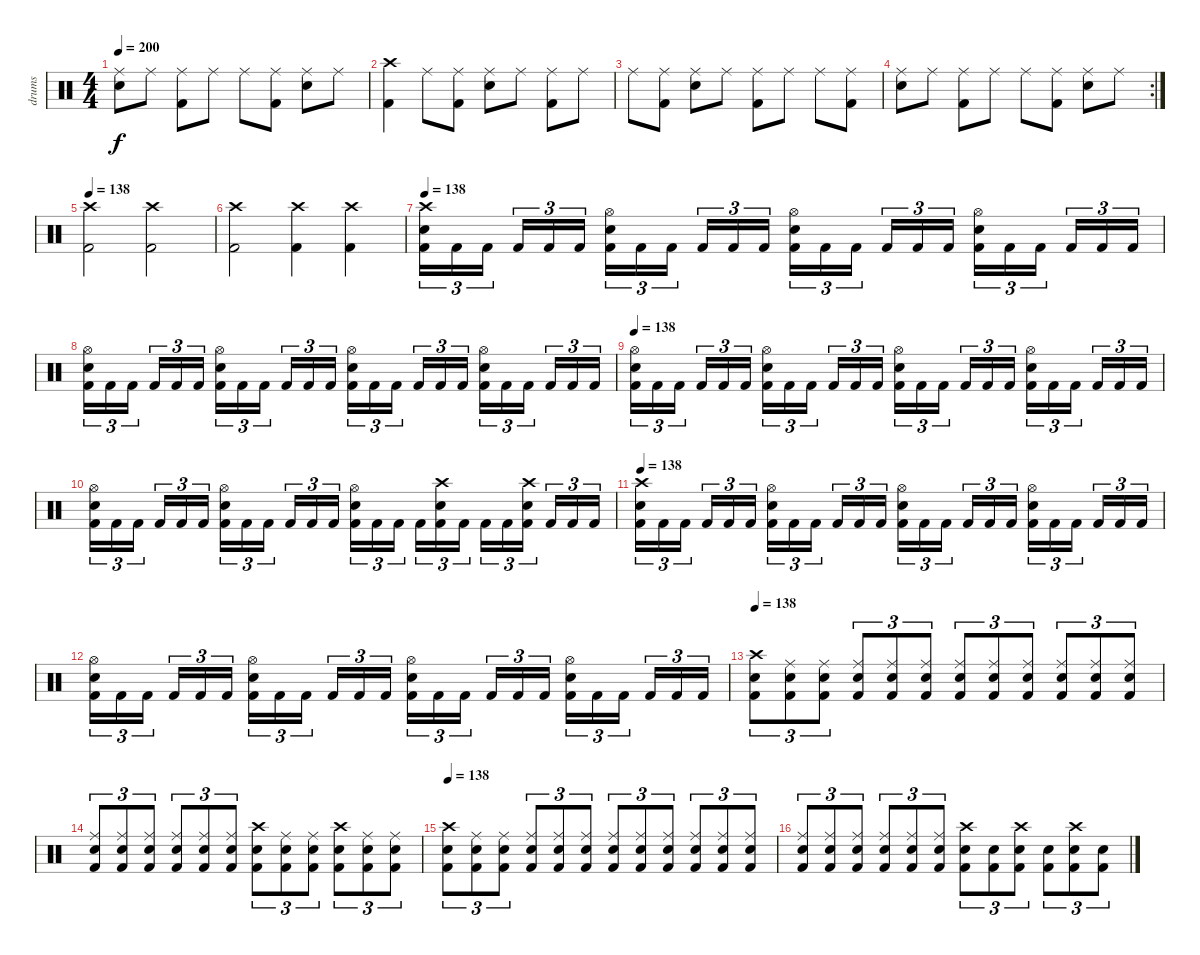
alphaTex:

\track ("drums" "drums") {instrument percussion}
\staff {score}
\articulation defaults
\ts (4 4)
\tempo 200
\clef neutral
\ks c
("Snare (hit) 2" "Ride (middle)").8{dy f} "Ride (middle)".8 ("Kick (hit) 2" "Ride (middle)").8 "Ride (middle)".8 "Ride (middle)".8 ("Kick (hit) 2" "Ride (middle)").8 ("Snare (hit) 2" "Ride (middle)").8 "Ride (middle)".8 |
("Kick (hit) 2" "Crash high (hit)").4 "Ride (middle)".8 ("Kick (hit) 2" "Ride (middle)").8 ("Snare (hit) 2" "Ride (middle)").8 "Ride (middle)".8 ("Kick (hit) 2" "Ride (middle)").8 "Ride (middle)".8 |
"Ride (middle)".8 ("Kick (hit) 2" "Ride (middle)").8 ("Snare (hit) 2" "Ride (middle)").8 "Ride (middle)".8 ("Kick (hit) 2" "Ride (middle)").8 "Ride (middle)".8 "Ride (middle)".8 ("Kick (hit) 2" "Ride (middle)").8 |
\rc 2
("Snare (hit) 2" "Ride (middle)").8 "Ride (middle)".8 ("Kick (hit) 2" "Ride (middle)").8 "Ride (middle)".8 "Ride (middle)".8 ("Kick (hit) 2" "Ride (middle)").8 ("Snare (hit) 2" "Ride (middle)").8 "Ride (middle)".8 |
\tempo 138
("Kick (hit) 2" "Crash high (hit)").2 ("Kick (hit) 2" "Crash high (hit)").2 |
("Kick (hit) 2" "Crash high (hit)").2 ("Kick (hit) 2" "Crash high (hit)").4 ("Kick (hit) 2" "Crash high (hit)").4 |
\tempo 138
("Kick (hit) 2" "Snare (hit) 2" "Crash high (hit)").16{tu (3 2)} "Kick (hit) 2".16{tu (3 2)} "Kick (hit) 2".16{tu (3 2)} "Kick (hit) 2".16{tu (3 2)} "Kick (hit) 2".16{tu (3 2)} "Kick (hit) 2".16{tu (3 2)} ("Kick (hit) 2" "Snare (hit) 2" "Hi-Hat (open)").16{tu (3 2)} "Kick (hit) 2".16{tu (3 2)} "Kick (hit) 2".16{tu (3 2)} "Kick (hit) 2".16{tu (3 2)} "Kick (hit) 2".16{tu (3 2)} "Kick (hit) 2".16{tu (3 2)} ("Kick (hit) 2" "Snare (hit) 2" "Hi-Hat (open)").16{tu (3 2)} "Kick (hit) 2".16{tu (3 2)} "Kick (hit) 2".16{tu (3 2)} "Kick (hit) 2".16{tu (3 2)} "Kick (hit) 2".16{tu (3 2)} "Kick (hit) 2".16{tu (3 2)} ("Kick (hit) 2" "Snare (hit) 2" "Hi-Hat (open)").16{tu (3 2)} "Kick (hit) 2".16{tu (3 2)} "Kick (hit) 2".16{tu (3 2)} "Kick (hit) 2".16{tu (3 2)} "Kick (hit) 2".16{tu (3 2)} "Kick (hit) 2".16{tu (3 2)} |
("Kick (hit) 2" "Snare (hit) 2" "Hi-Hat (open)").16{tu (3 2)} "Kick (hit) 2".16{tu (3 2)} "Kick (hit) 2".16{tu (3 2)} "Kick (hit) 2".16{tu (3 2)} "Kick (hit) 2".16{tu (3 2)} "Kick (hit) 2".16{tu (3 2)} ("Kick (hit) 2" "Snare (hit) 2" "Hi-Hat (open)").16{tu (3 2)} "Kick (hit) 2".16{tu (3 2)} "Kick (hit) 2".16{tu (3 2)} "Kick (hit) 2".16{tu (3 2)} "Kick (hit) 2".16{tu (3 2)} "Kick (hit) 2".16{tu (3 2)} ("Kick (hit) 2" "Snare (hit) 2" "Hi-Hat (open)").16{tu (3 2)} "Kick (hit) 2".16{tu (3 2)} "Kick (hit) 2".16{tu (3 2)} "Kick (hit) 2".16{tu (3 2)} "Kick (hit) 2".16{tu (3 2)} "Kick (hit) 2".16{tu (3 2)} ("Kick (hit) 2" "Snare (hit) 2" "Hi-Hat (open)").16{tu (3 2)} "Kick (hit) 2".16{tu (3 2)} "Kick (hit) 2".16{tu (3 2)} "Kick (hit) 2".16{tu (3 2)} "Kick (hit) 2".16{tu (3 2)} "Kick (hit) 2".16{tu (3 2)} |
\tempo 138
("Kick (hit) 2" "Snare (hit) 2" "Hi-Hat (open)").16{tu (3 2)} "Kick (hit) 2".16{tu (3 2)} "Kick (hit) 2".16{tu (3 2)} "Kick (hit) 2".16{tu (3 2)} "Kick (hit) 2".16{tu (3 2)} "Kick (hit) 2".16{tu (3 2)} ("Kick (hit) 2" "Snare (hit) 2" "Hi-Hat (open)").16{tu (3 2)} "Kick (hit) 2".16{tu (3 2)} "Kick (hit) 2".16{tu (3 2)} "Kick (hit) 2".16{tu (3 2)} "Kick (hit) 2".16{tu (3 2)} "Kick (hit) 2".16{tu (3 2)} ("Kick (hit) 2" "Snare (hit) 2" "Hi-Hat (open)").16{tu (3 2)} "Kick (hit) 2".16{tu (3 2)} "Kick (hit) 2".16{tu (3 2)} "Kick (hit) 2".16{tu (3 2)} "Kick (hit) 2".16{tu (3 2)} "Kick (hit) 2".16{tu (3 2)} ("Kick (hit) 2" "Snare (hit) 2" "Hi-Hat (open)").16{tu (3 2)} "Kick (hit) 2".16{tu (3 2)} "Kick (hit) 2".16{tu (3 2)} "Kick (hit) 2".16{tu (3 2)} "Kick (hit) 2".16{tu (3 2)} "Kick (hit) 2".16{tu (3 2)} |
("Kick (hit) 2" "Snare (hit) 2" "Hi-Hat (open)").16{tu (3 2)} "Kick (hit) 2".16{tu (3 2)} "Kick (hit) 2".16{tu (3 2)} "Kick (hit) 2".16{tu (3 2)} "Kick (hit) 2".16{tu (3 2)} "Kick (hit) 2".16{tu (3 2)} ("Kick (hit) 2" "Snare (hit) 2" "Hi-Hat (open)").16{tu (3 2)} "Kick (hit) 2".16{tu (3 2)} "Kick (hit) 2".16{tu (3 2)} "Kick (hit) 2".16{tu (3 2)} "Kick (hit) 2".16{tu (3 2)} "Kick (hit) 2".16{tu (3 2)} ("Kick (hit) 2" "Snare (hit) 2" "Hi-Hat (open)").16{tu (3 2)} "Kick (hit) 2".16{tu (3 2)} "Kick (hit) 2".16{tu (3 2)} "Kick (hit) 2".16{tu (3 2)} ("Kick (hit) 2" "Snare (hit) 2" "Crash high (hit)").16{tu (3 2)} "Kick (hit) 2".16{tu (3 2)} "Kick (hit) 2".16{tu (3 2)} "Kick (hit) 2".16{tu (3 2)} ("Kick (hit) 2" "Snare (hit) 2" "Crash high (hit)").16{tu (3 2)} "Kick (hit) 2".16{tu (3 2)} "Kick (hit) 2".16{tu (3 2)} "Kick (hit) 2".16{tu (3 2)} |
\tempo 138
("Kick (hit) 2" "Snare (hit) 2" "Crash high (hit)").16{tu (3 2)} "Kick (hit) 2".16{tu (3 2)} "Kick (hit) 2".16{tu (3 2)} "Kick (hit) 2".16{tu (3 2)} "Kick (hit) 2".16{tu (3 2)} "Kick (hit) 2".16{tu (3 2)} ("Kick (hit) 2" "Snare (hit) 2" "Hi-Hat (open)").16{tu (3 2)} "Kick (hit) 2".16{tu (3 2)} "Kick (hit) 2".16{tu (3 2)} "Kick (hit) 2".16{tu (3 2)} "Kick (hit) 2".16{tu (3 2)} "Kick (hit) 2".16{tu (3 2)} ("Kick (hit) 2" "Snare (hit) 2" "Hi-Hat (open)").16{tu (3 2)} "Kick (hit) 2".16{tu (3 2)} "Kick (hit) 2".16{tu (3 2)} "Kick (hit) 2".16{tu (3 2)} "Kick (hit) 2".16{tu (3 2)} "Kick (hit) 2".16{tu (3 2)} ("Kick (hit) 2" "Snare (hit) 2" "Hi-Hat (open)").16{tu (3 2)} "Kick (hit) 2".16{tu (3 2)} "Kick (hit) 2".16{tu (3 2)} "Kick (hit) 2".16{tu (3 2)} "Kick (hit) 2".16{tu (3 2)} "Kick (hit) 2".16{tu (3 2)} |
("Kick (hit) 2" "Snare (hit) 2" "Hi-Hat (open)").16{tu (3 2)} "Kick (hit) 2".16{tu (3 2)} "Kick (hit) 2".16{tu (3 2)} "Kick (hit) 2".16{tu (3 2)} "Kick (hit) 2".16{tu (3 2)} "Kick (hit) 2".16{tu (3 2)} ("Kick (hit) 2" "Snare (hit) 2" "Hi-Hat (open)").16{tu (3 2)} "Kick (hit) 2".16{tu (3 2)} "Kick (hit) 2".16{tu (3 2)} "Kick (hit) 2".16{tu (3 2)} "Kick (hit) 2".16{tu (3 2)} "Kick (hit) 2".16{tu (3 2)} ("Kick (hit) 2" "Snare (hit) 2" "Hi-Hat (open)").16{tu (3 2)} "Kick (hit) 2".16{tu (3 2)} "Kick (hit) 2".16{tu (3 2)} "Kick (hit) 2".16{tu (3 2)} "Kick (hit) 2".16{tu (3 2)} "Kick (hit) 2".16{tu (3 2)} ("Kick (hit) 2" "Snare (hit) 2" "Hi-Hat (open)").16{tu (3 2)} "Kick (hit) 2".16{tu (3 2)} "Kick (hit) 2".16{tu (3 2)} "Kick (hit) 2".16{tu (3 2)} "Kick (hit) 2".16{tu (3 2)} "Kick (hit) 2".16{tu (3 2)} |
\tempo 138
("Kick (hit) 2" "Snare (hit) 2" "Crash high (hit)").8{tu (3 2)} ("Kick (hit) 2" "Snare (hit) 2" "Ride (middle)").8{tu (3 2)} ("Kick (hit) 2" "Snare (hit) 2" "Ride (middle)").8{tu (3 2)} ("Kick (hit) 2" "Snare (hit) 2" "Ride (middle)").8{tu (3 2)} ("Kick (hit) 2" "Snare (hit) 2" "Ride (middle)").8{tu (3 2)} ("Kick (hit) 2" "Snare (hit) 2" "Ride (middle)").8{tu (3 2)} ("Kick (hit) 2" "Snare (hit) 2" "Ride (middle)").8{tu (3 2)} ("Kick (hit) 2" "Snare (hit) 2" "Ride (middle)").8{tu (3 2)} ("Kick (hit) 2" "Snare (hit) 2" "Ride (middle)").8{tu (3 2)} ("Kick (hit) 2" "Snare (hit) 2" "Ride (middle)").8{tu (3 2)} ("Kick (hit) 2" "Snare (hit) 2" "Ride (middle)").8{tu (3 2)} ("Kick (hit) 2" "Snare (hit) 2" "Ride (middle)").8{tu (3 2)} |
("Kick (hit) 2" "Snare (hit) 2" "Ride (middle)").8{tu (3 2)} ("Kick (hit) 2" "Snare (hit) 2" "Ride (middle)").8{tu (3 2)} ("Kick (hit) 2" "Snare (hit) 2" "Ride (middle)").8{tu (3 2)} ("Kick (hit) 2" "Snare (hit) 2" "Ride (middle)").8{tu (3 2)} ("Kick (hit) 2" "Snare (hit) 2" "Ride (middle)").8{tu (3 2)} ("Kick (hit) 2" "Snare (hit) 2" "Ride (middle)").8{tu (3 2)} ("Kick (hit) 2" "Snare (hit) 2" "Crash high (hit)").8{tu (3 2)} ("Kick (hit) 2" "Snare (hit) 2" "Ride (middle)").8{tu (3 2)} ("Kick (hit) 2" "Snare (hit) 2" "Ride (middle)").8{tu (3 2)} ("Kick (hit) 2" "Snare (hit) 2" "Crash high (hit)").8{tu (3 2)} ("Kick (hit) 2" "Snare (hit) 2" "Ride (middle)").8{tu (3 2)} ("Kick (hit) 2" "Snare (hit) 2" "Ride (middle)").8{tu (3 2)} |
\tempo 138
("Kick (hit) 2" "Snare (hit) 2" "Crash high (hit)").8{tu (3 2)} ("Kick (hit) 2" "Snare (hit) 2" "Ride (middle)").8{tu (3 2)} ("Kick (hit) 2" "Snare (hit) 2" "Ride (middle)").8{tu (3 2)} ("Kick (hit) 2" "Snare (hit) 2" "Ride (middle)").8{tu (3 2)} ("Kick (hit) 2" "Snare (hit) 2" "Ride (middle)").8{tu (3 2)} ("Kick (hit) 2" "Snare (hit) 2" "Ride (middle)").8{tu (3 2)} ("Kick (hit) 2" "Snare (hit) 2" "Ride (middle)").8{tu (3 2)} ("Kick (hit) 2" "Snare (hit) 2" "Ride (middle)").8{tu (3 2)} ("Kick (hit) 2" "Snare (hit) 2" "Ride (middle)").8{tu (3 2)} ("Kick (hit) 2" "Snare (hit) 2" "Ride (middle)").8{tu (3 2)} ("Kick (hit) 2" "Snare (hit) 2" "Ride (middle)").8{tu (3 2)} ("Kick (hit) 2" "Snare (hit) 2" "Ride (middle)").8{tu (3 2)} |
("Kick (hit) 2" "Snare (hit) 2" "Ride (middle)").8{tu (3 2)} ("Kick (hit) 2" "Snare (hit) 2" "Ride (middle)").8{tu (3 2)} ("Kick (hit) 2" "Snare (hit) 2" "Ride (middle)").8{tu (3 2)} ("Kick (hit) 2" "Snare (hit) 2" "Ride (middle)").8{tu (3 2)} ("Kick (hit) 2" "Snare (hit) 2" "Ride (middle)").8{tu (3 2)} ("Kick (hit) 2" "Snare (hit) 2" "Ride (middle)").8{tu (3 2)} ("Kick (hit) 2" "Snare (hit) 2" "Crash high (hit)").8{tu (3 2)} ("Kick (hit) 2" "Snare (hit) 2").8{tu (3 2)} ("Kick (hit) 2" "Snare (hit) 2" "Crash high (hit)").8{tu (3 2)} ("Kick (hit) 2" "Snare (hit) 2").8{tu (3 2)} ("Kick (hit) 2" "Snare (hit) 2" "Crash high (hit)").8{tu (3 2)} ("Kick (hit) 2" "Snare (hit) 2").8{tu (3 2)}
